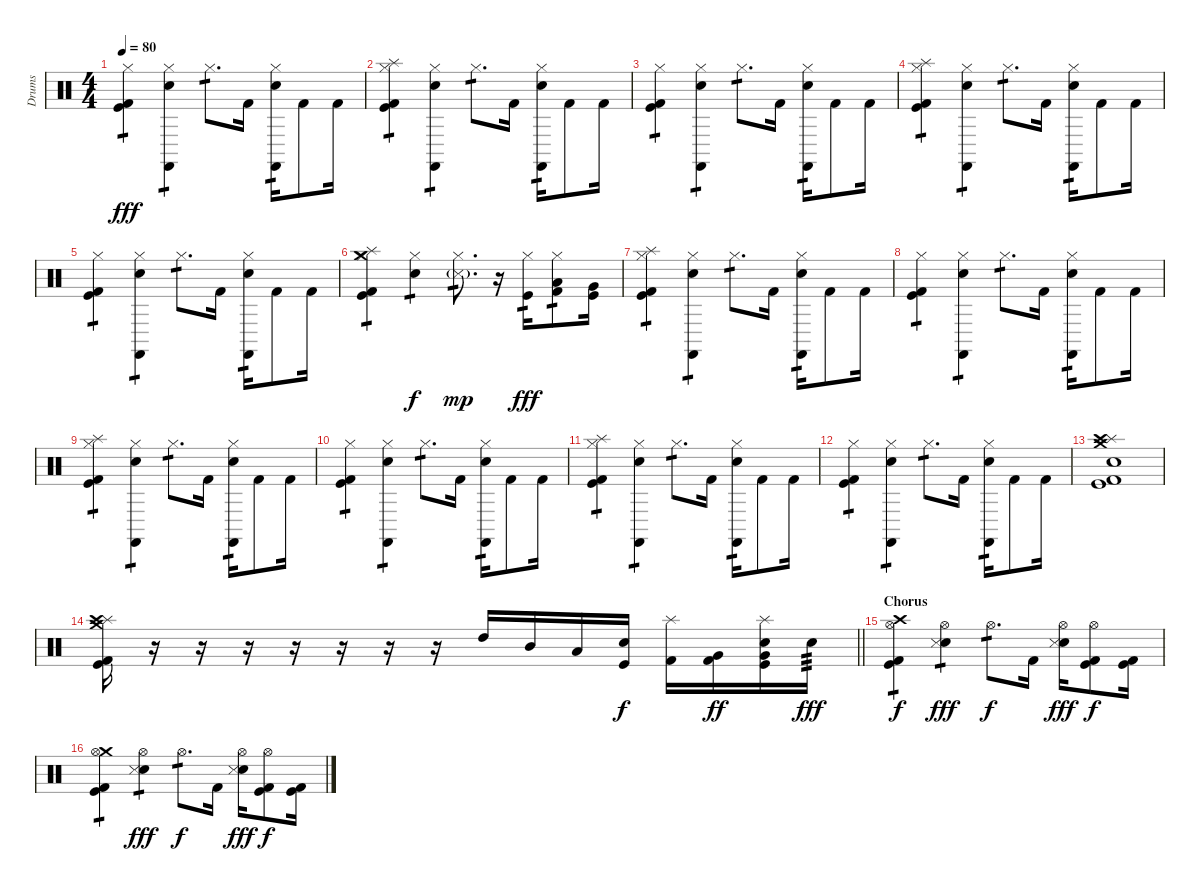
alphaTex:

\track ("Drums" "Drums") {instrument percussion}
\staff {score}
\articulation defaults
\ts (4 4)
\tempo 80
\clef neutral
\ks c
("Hi-Hat (closed)" "Kick (hit)" "Kick (hit) 2").4{tp 1 dy fff} ("Hi-Hat (closed)" "Castanets (hit)" "Snare (hit) 2").4{tp 1} "Hi-Hat (closed)".8{d tp 1} "Kick (hit) 2".16 ("Hi-Hat (closed)" "Castanets (hit)" "Snare (hit) 2").16{tp 1} "Kick (hit) 2".8 "Kick (hit) 2".16 |
("Splash (hit)" "Hi-Hat (closed)" "Kick (hit)" "Kick (hit) 2").4{tp 1} ("Hi-Hat (closed)" "Castanets (hit)" "Snare (hit) 2").4{tp 1} "Hi-Hat (closed)".8{d tp 1} "Kick (hit) 2".16 ("Hi-Hat (closed)" "Castanets (hit)" "Snare (hit) 2").16{tp 1} "Kick (hit) 2".8 "Kick (hit) 2".16 |
("Hi-Hat (closed)" "Kick (hit)" "Kick (hit) 2").4{tp 1} ("Hi-Hat (closed)" "Castanets (hit)" "Snare (hit) 2").4{tp 1} "Hi-Hat (closed)".8{d tp 1} "Kick (hit) 2".16 ("Hi-Hat (closed)" "Castanets (hit)" "Snare (hit) 2").16{tp 1} "Kick (hit) 2".8 "Kick (hit) 2".16 |
("Splash (hit)" "Hi-Hat (closed)" "Kick (hit)" "Kick (hit) 2").4{tp 1} ("Hi-Hat (closed)" "Castanets (hit)" "Snare (hit) 2").4{tp 1} "Hi-Hat (closed)".8{d tp 1} "Kick (hit) 2".16 ("Hi-Hat (closed)" "Castanets (hit)" "Snare (hit) 2").16{tp 1} "Kick (hit) 2".8 "Kick (hit) 2".16 |
("Hi-Hat (closed)" "Kick (hit)" "Kick (hit) 2").4{tp 1} ("Hi-Hat (closed)" "Castanets (hit)" "Snare (hit) 2").4{tp 1} "Hi-Hat (closed)".8{d tp 1} "Kick (hit) 2".16 ("Hi-Hat (closed)" "Castanets (hit)" "Snare (hit) 2").16{tp 1} "Kick (hit) 2".8 "Kick (hit) 2".16 |
("Crash medium (hit)" "Splash (hit)" "Hi-Hat (closed)" "Kick (hit)" "Kick (hit) 2").4{tp 1} ("Hi-Hat (closed)" "Snare (hit) 2").4{tp 1 dy f} ("Hi-Hat (closed)" "Snare (side stick) 3"{g}).8{d tp 1 dy mp} r.16 ("Hi-Hat (closed)" "Kick (hit)").16{tp 1 dy fff} ("Hi-Hat (closed)" "Low Tom (hit)" "Kick (hit) 2").8{tp 1} ("Very Low Tom (hit)" "Kick (hit)").16 |
("Splash (hit)" "Hi-Hat (closed)" "Kick (hit)" "Kick (hit) 2").4{tp 1} ("Hi-Hat (closed)" "Castanets (hit)" "Snare (hit) 2").4{tp 1} "Hi-Hat (closed)".8{d tp 1} "Kick (hit) 2".16 ("Hi-Hat (closed)" "Castanets (hit)" "Snare (hit) 2").16{tp 1} "Kick (hit) 2".8 "Kick (hit) 2".16 |
("Hi-Hat (closed)" "Kick (hit)" "Kick (hit) 2").4{tp 1} ("Hi-Hat (closed)" "Castanets (hit)" "Snare (hit) 2").4{tp 1} "Hi-Hat (closed)".8{d tp 1} "Kick (hit) 2".16 ("Hi-Hat (closed)" "Castanets (hit)" "Snare (hit) 2").16{tp 1} "Kick (hit) 2".8 "Kick (hit) 2".16 |
("Splash (hit)" "Hi-Hat (closed)" "Kick (hit)" "Kick (hit) 2").4{tp 1} ("Hi-Hat (closed)" "Castanets (hit)" "Snare (hit) 2").4{tp 1} "Hi-Hat (closed)".8{d tp 1} "Kick (hit) 2".16 ("Hi-Hat (closed)" "Castanets (hit)" "Snare (hit) 2").16{tp 1} "Kick (hit) 2".8 "Kick (hit) 2".16 |
("Hi-Hat (closed)" "Kick (hit)" "Kick (hit) 2").4{tp 1} ("Hi-Hat (closed)" "Castanets (hit)" "Snare (hit) 2").4{tp 1} "Hi-Hat (closed)".8{d tp 1} "Kick (hit) 2".16 ("Hi-Hat (closed)" "Castanets (hit)" "Snare (hit) 2").16{tp 1} "Kick (hit) 2".8 "Kick (hit) 2".16 |
("Splash (hit)" "Hi-Hat (closed)" "Kick (hit)" "Kick (hit) 2").4{tp 1} ("Hi-Hat (closed)" "Castanets (hit)" "Snare (hit) 2").4{tp 1} "Hi-Hat (closed)".8{d tp 1} "Kick (hit) 2".16 ("Hi-Hat (closed)" "Castanets (hit)" "Snare (hit) 2").16{tp 1} "Kick (hit) 2".8 "Kick (hit) 2".16 |
("Hi-Hat (closed)" "Kick (hit)" "Kick (hit) 2").4{tp 1} ("Hi-Hat (closed)" "Castanets (hit)" "Snare (hit) 2").4{tp 1} "Hi-Hat (closed)".8{d tp 1} "Kick (hit) 2".16 ("Hi-Hat (closed)" "Castanets (hit)" "Snare (hit) 2").16{tp 1} "Kick (hit) 2".8 "Kick (hit) 2".16 |
("Splash (hit)" "Crash medium (hit)" "Crash high (hit)" "Snare (hit) 2" "Kick (hit)" "Kick (hit) 2").1 |
\barLineRight lightlight
("Crash medium (hit)" "Splash (hit)" "Crash high (hit)" "Kick (hit)" "Kick (hit) 2").16 r.16 r.16 r.16 r.16 r.16 r.16 r.16 "High Tom (hit)".16 "Mid Tom (hit)".16 "Low Tom (hit)".16 ("Snare (hit) 2" "Kick (hit)").16{dy f} ("Splash (hit)" "Kick (hit) 2").16 ("Very Low Tom (hit)" "Kick (hit) 2").16{dy ff} ("Splash (hit)" "Snare (hit) 2" "Very Low Tom (hit)" "Kick (hit)").16 "Snare (hit) 2".16{tp 3 dy fff} |
\section ("" "Chorus")
("Crash high (hit)" "Hi-Hat (open)" "Kick (hit)" "Kick (hit) 2").4{tp 1 dy f} ("Hi-Hat (open)" "Snare (hit) 2" "Snare (side stick) 3").4{tp 1 dy fff} "Hi-Hat (open)".8{d tp 1 dy f} "Kick (hit) 2".16 ("Hi-Hat (open)" "Snare (hit) 2" "Snare (side stick) 3").16{dy fff} ("Hi-Hat (open)" "Kick (hit)" "Kick (hit) 2").8{dy f} ("Kick (hit)" "Kick (hit) 2").16 |
("Crash medium (hit)" "Hi-Hat (open)" "Kick (hit)" "Kick (hit) 2").4{tp 1} ("Hi-Hat (open)" "Snare (hit) 2" "Snare (side stick) 3").4{tp 1 dy fff} "Hi-Hat (open)".8{d tp 1 dy f} "Kick (hit) 2".16 ("Hi-Hat (open)" "Snare (hit) 2" "Snare (side stick) 3").16{dy fff} ("Hi-Hat (open)" "Kick (hit)" "Kick (hit) 2").8{dy f} ("Kick (hit)" "Kick (hit) 2").16
